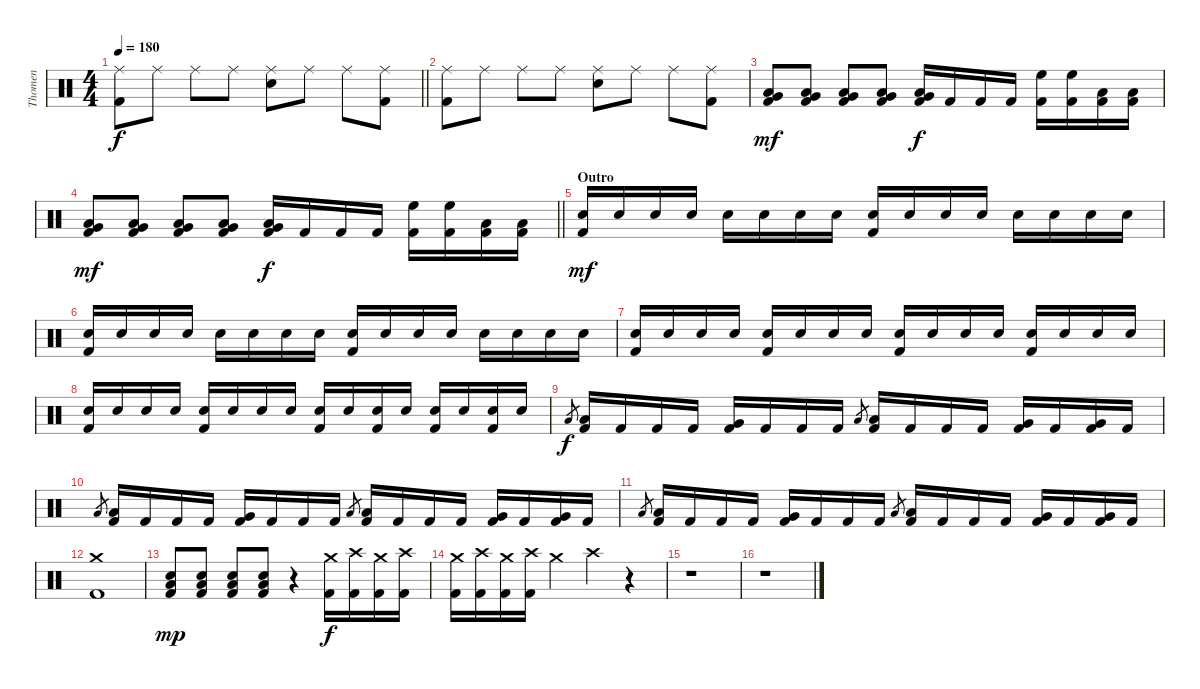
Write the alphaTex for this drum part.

\track ("Thomen" "Thomen") {instrument percussion}
\staff {score}
\articulation defaults
\ts (4 4)
\tempo 180
\clef neutral
\barLineRight lightlight
\ks c
("Kick (hit) 2" "Ride (middle)").8{dy f} "Ride (middle)".8 "Ride (middle)".8 "Ride (middle)".8 ("Electric Snare (hit)" "Ride (middle)").8 "Ride (middle)".8 "Ride (middle)".8 ("Kick (hit) 2" "Ride (middle)").8 |
("Kick (hit) 2" "Ride (middle)").8 "Ride (middle)".8 "Ride (middle)".8 "Ride (middle)".8 ("Electric Snare (hit)" "Ride (middle)").8 "Ride (middle)".8 "Ride (middle)".8 ("Kick (hit) 2" "Ride (middle)").8 |
("Kick (hit) 2" "Very Low Tom (hit)" "Low Floor Tom (hit)").8{dy mf} ("Kick (hit) 2" "Very Low Tom (hit)" "Low Floor Tom (hit)").8 ("Kick (hit) 2" "Very Low Tom (hit)" "Low Floor Tom (hit)").8 ("Kick (hit) 2" "Very Low Tom (hit)" "Low Floor Tom (hit)").8 ("Kick (hit) 2" "Very Low Tom (hit)" "Low Floor Tom (hit)").16{dy f} "Kick (hit) 2".16 "Kick (hit) 2".16 "Kick (hit) 2".16 ("Kick (hit) 2" "High Floor Tom (hit)").16 ("Kick (hit) 2" "High Floor Tom (hit)").16 ("Kick (hit) 2" "Low Tom (hit)").16 ("Kick (hit) 2" "Low Tom (hit)").16 |
\barLineRight lightlight
("Kick (hit) 2" "Very Low Tom (hit)" "Low Floor Tom (hit)").8{dy mf} ("Kick (hit) 2" "Very Low Tom (hit)" "Low Floor Tom (hit)").8 ("Kick (hit) 2" "Very Low Tom (hit)" "Low Floor Tom (hit)").8 ("Kick (hit) 2" "Very Low Tom (hit)" "Low Floor Tom (hit)").8 ("Kick (hit) 2" "Very Low Tom (hit)" "Low Floor Tom (hit)").16{dy f} "Kick (hit) 2".16 "Kick (hit) 2".16 "Kick (hit) 2".16 ("Kick (hit) 2" "High Floor Tom (hit)").16 ("Kick (hit) 2" "High Floor Tom (hit)").16 ("Kick (hit) 2" "Low Tom (hit)").16 ("Kick (hit) 2" "Low Tom (hit)").16 |
\section ("" "Outro")
("Kick (hit) 2" "Electric Snare (hit)").16{dy mf} "Electric Snare (hit)".16 "Electric Snare (hit)".16 "Electric Snare (hit)".16 "Electric Snare (hit)".16 "Electric Snare (hit)".16 "Electric Snare (hit)".16 "Electric Snare (hit)".16 ("Kick (hit) 2" "Electric Snare (hit)").16 "Electric Snare (hit)".16 "Electric Snare (hit)".16 "Electric Snare (hit)".16 "Electric Snare (hit)".16 "Electric Snare (hit)".16 "Electric Snare (hit)".16 "Electric Snare (hit)".16 |
("Kick (hit) 2" "Electric Snare (hit)").16 "Electric Snare (hit)".16 "Electric Snare (hit)".16 "Electric Snare (hit)".16 "Electric Snare (hit)".16 "Electric Snare (hit)".16 "Electric Snare (hit)".16 "Electric Snare (hit)".16 ("Kick (hit) 2" "Electric Snare (hit)").16 "Electric Snare (hit)".16 "Electric Snare (hit)".16 "Electric Snare (hit)".16 "Electric Snare (hit)".16 "Electric Snare (hit)".16 "Electric Snare (hit)".16 "Electric Snare (hit)".16 |
("Kick (hit) 2" "Electric Snare (hit)").16 "Electric Snare (hit)".16 "Electric Snare (hit)".16 "Electric Snare (hit)".16 ("Kick (hit) 2" "Electric Snare (hit)").16 "Electric Snare (hit)".16 "Electric Snare (hit)".16 "Electric Snare (hit)".16 ("Kick (hit) 2" "Electric Snare (hit)").16 "Electric Snare (hit)".16 "Electric Snare (hit)".16 "Electric Snare (hit)".16 ("Kick (hit) 2" "Electric Snare (hit)").16 "Electric Snare (hit)".16 "Electric Snare (hit)".16 "Electric Snare (hit)".16 |
("Kick (hit) 2" "Electric Snare (hit)").16 "Electric Snare (hit)".16 "Electric Snare (hit)".16 "Electric Snare (hit)".16 ("Kick (hit) 2" "Electric Snare (hit)").16 "Electric Snare (hit)".16 "Electric Snare (hit)".16 "Electric Snare (hit)".16 ("Kick (hit) 2" "Electric Snare (hit)").16 "Electric Snare (hit)".16 ("Kick (hit) 2" "Electric Snare (hit)").16 "Electric Snare (hit)".16 ("Kick (hit) 2" "Electric Snare (hit)").16 "Electric Snare (hit)".16 ("Kick (hit) 2" "Electric Snare (hit)").16 "Electric Snare (hit)".16 |
"Low Floor Tom (hit)".8{gr dy f} ("Kick (hit) 2" "Low Floor Tom (hit)").16 "Kick (hit) 2".16 "Kick (hit) 2".16 "Kick (hit) 2".16 ("Kick (hit) 2" "Very Low Tom (hit)").16 "Kick (hit) 2".16 "Kick (hit) 2".16 "Kick (hit) 2".16 "Low Floor Tom (hit)".8{gr} ("Kick (hit) 2" "Low Floor Tom (hit)").16 "Kick (hit) 2".16 "Kick (hit) 2".16 "Kick (hit) 2".16 ("Kick (hit) 2" "Very Low Tom (hit)").16 "Kick (hit) 2".16 ("Kick (hit) 2" "Very Low Tom (hit)").16 "Kick (hit) 2".16 |
"Low Floor Tom (hit)".8{gr} ("Kick (hit) 2" "Low Floor Tom (hit)").16 "Kick (hit) 2".16 "Kick (hit) 2".16 "Kick (hit) 2".16 ("Kick (hit) 2" "Very Low Tom (hit)").16 "Kick (hit) 2".16 "Kick (hit) 2".16 "Kick (hit) 2".16 "Low Floor Tom (hit)".8{gr} ("Kick (hit) 2" "Low Floor Tom (hit)").16 "Kick (hit) 2".16 "Kick (hit) 2".16 "Kick (hit) 2".16 ("Kick (hit) 2" "Very Low Tom (hit)").16 "Kick (hit) 2".16 ("Kick (hit) 2" "Very Low Tom (hit)").16 "Kick (hit) 2".16 |
"Low Floor Tom (hit)".8{gr} ("Kick (hit) 2" "Low Floor Tom (hit)").16 "Kick (hit) 2".16 "Kick (hit) 2".16 "Kick (hit) 2".16 ("Kick (hit) 2" "Very Low Tom (hit)").16 "Kick (hit) 2".16 "Kick (hit) 2".16 "Kick (hit) 2".16 "Low Floor Tom (hit)".8{gr} ("Kick (hit) 2" "Low Floor Tom (hit)").16 "Kick (hit) 2".16 "Kick (hit) 2".16 "Kick (hit) 2".16 ("Kick (hit) 2" "Very Low Tom (hit)").16 "Kick (hit) 2".16 ("Kick (hit) 2" "Very Low Tom (hit)").16 "Kick (hit) 2".16 |
("Kick (hit) 2" "Crash medium (hit)").1 |
("Kick (hit) 2" "Low Floor Tom (hit)" "Electric Snare (hit)").8{dy mp} ("Kick (hit) 2" "Low Floor Tom (hit)" "Electric Snare (hit)").8 ("Kick (hit) 2" "Low Floor Tom (hit)" "Electric Snare (hit)").8 ("Kick (hit) 2" "Low Floor Tom (hit)" "Electric Snare (hit)").8 r.4 ("Kick (hit) 2" "Crash medium (hit)").16{dy f} ("Kick (hit) 2" "Crash high (hit)").16 ("Kick (hit) 2" "Crash medium (hit)").16 ("Kick (hit) 2" "Crash high (hit)").16 |
("Kick (hit) 2" "Crash medium (hit)").16 ("Kick (hit) 2" "Crash high (hit)").16 ("Kick (hit) 2" "Crash medium (hit)").16 ("Kick (hit) 2" "Crash high (hit)").16 "Crash medium (hit)".4 "Crash high (hit)".4 r.4 |
r.1 |
r.1
